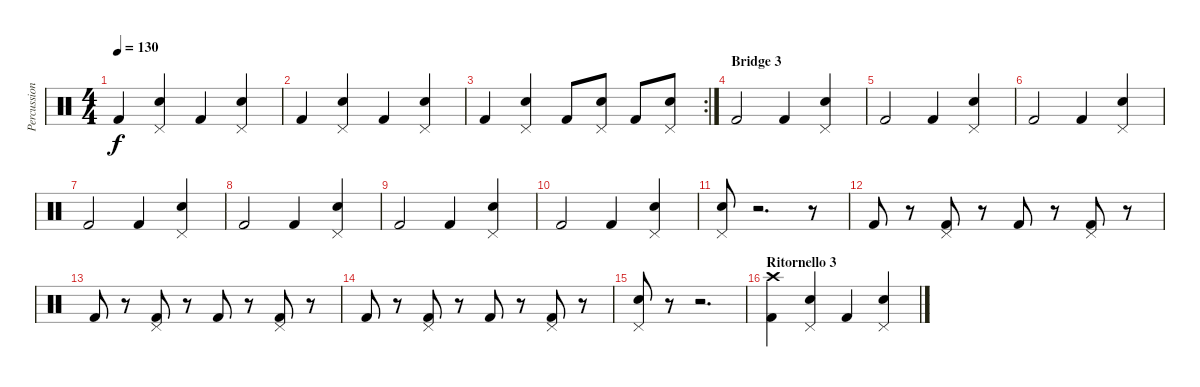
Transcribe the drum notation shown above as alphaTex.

\track ("Percussioni" "Percussion") {instrument percussion}
\staff {score}
\articulation defaults
\ts (4 4)
\tempo 130
\clef neutral
\ks c "Kick (hit) 2".4{dy f}
("Pedal Hi-Hat (hit)" "Snare (hit) 2").4 "Kick (hit) 2".4 ("Pedal Hi-Hat (hit)" "Snare (hit) 2").4 |
"Kick (hit) 2".4 ("Pedal Hi-Hat (hit)" "Snare (hit) 2").4 "Kick (hit) 2".4 ("Pedal Hi-Hat (hit)" "Snare (hit) 2").4 |
\rc 2 "Kick (hit) 2".4
("Pedal Hi-Hat (hit)" "Snare (hit) 2").4 "Kick (hit) 2".8 ("Pedal Hi-Hat (hit)" "Snare (hit) 2").8 "Kick (hit) 2".8 ("Pedal Hi-Hat (hit)" "Snare (hit) 2").8 |
\section ("" "Bridge 3")
"Kick (hit) 2".2 "Kick (hit) 2".4 ("Pedal Hi-Hat (hit)" "Snare (hit) 2").4 |
"Kick (hit) 2".2 "Kick (hit) 2".4 ("Pedal Hi-Hat (hit)" "Snare (hit) 2").4 |
"Kick (hit) 2".2 "Kick (hit) 2".4 ("Pedal Hi-Hat (hit)" "Snare (hit) 2").4 |
"Kick (hit) 2".2 "Kick (hit) 2".4 ("Pedal Hi-Hat (hit)" "Snare (hit) 2").4 |
"Kick (hit) 2".2 "Kick (hit) 2".4 ("Pedal Hi-Hat (hit)" "Snare (hit) 2").4 |
"Kick (hit) 2".2 "Kick (hit) 2".4 ("Pedal Hi-Hat (hit)" "Snare (hit) 2").4 |
"Kick (hit) 2".2 "Kick (hit) 2".4 ("Pedal Hi-Hat (hit)" "Snare (hit) 2").4 |
("Pedal Hi-Hat (hit)" "Snare (hit) 2").8 r.2{d} r.8 |
"Kick (hit) 2".8 r.8 ("Pedal Hi-Hat (hit)" "Kick (hit) 2").8 r.8 "Kick (hit) 2".8 r.8 ("Pedal Hi-Hat (hit)" "Kick (hit) 2").8 r.8 |
"Kick (hit) 2".8 r.8 ("Pedal Hi-Hat (hit)" "Kick (hit) 2").8 r.8 "Kick (hit) 2".8 r.8 ("Pedal Hi-Hat (hit)" "Kick (hit) 2").8 r.8 |
"Kick (hit) 2".8 r.8 ("Pedal Hi-Hat (hit)" "Kick (hit) 2").8 r.8 "Kick (hit) 2".8 r.8 ("Pedal Hi-Hat (hit)" "Kick (hit) 2").8 r.8 |
("Pedal Hi-Hat (hit)" "Snare (hit) 2").8 r.8 r.2{d} |
\section ("" "Ritornello 3")
("Crash high (hit)" "Kick (hit) 2").4{volume 13} ("Pedal Hi-Hat (hit)" "Snare (hit) 2").4 "Kick (hit) 2".4 ("Pedal Hi-Hat (hit)" "Snare (hit) 2").4
